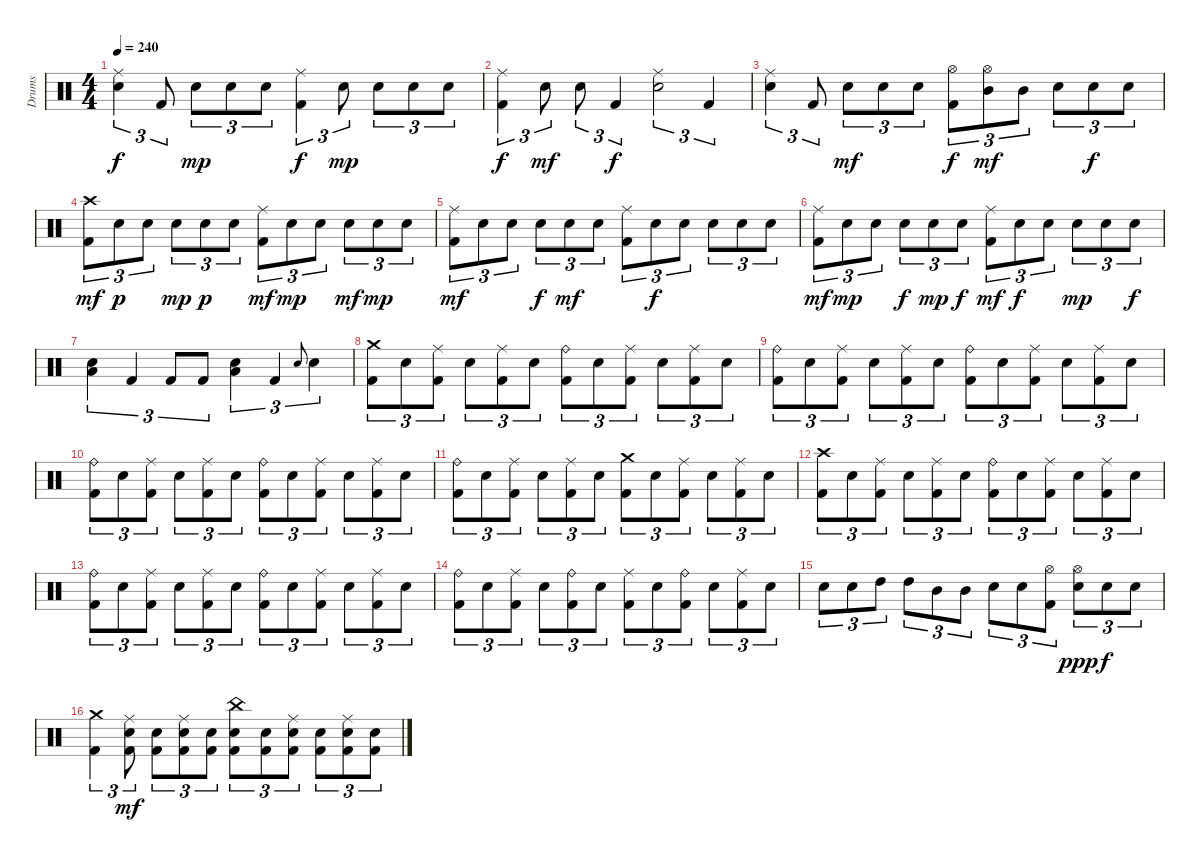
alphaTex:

\track ("Drums" "Drums") {instrument percussion}
\staff {score}
\articulation defaults
\ts (4 4)
\tempo 240
\clef neutral
\ks c
("Ride (middle)" "Electric Snare (hit)").4{tu (3 2) dy f} "Kick (hit) 2".8{tu (3 2)} "Electric Snare (hit)".8{tu (3 2) dy mp} "Electric Snare (hit)".8{tu (3 2)} "Electric Snare (hit)".8{tu (3 2)} ("Ride (middle)" "Kick (hit) 2").4{tu (3 2) dy f} "Electric Snare (hit)".8{tu (3 2) dy mp} "Electric Snare (hit)".8{tu (3 2)} "Electric Snare (hit)".8{tu (3 2)} "Electric Snare (hit)".8{tu (3 2)} |
("Ride (middle)" "Kick (hit) 2").4{tu (3 2) dy f} "Electric Snare (hit)".8{tu (3 2) dy mf} "Electric Snare (hit)".8{tu (3 2)} "Kick (hit) 2".4{tu (3 2) dy f} ("Ride (middle)" "Electric Snare (hit)").2{tu (3 2)} "Kick (hit) 2".4{tu (3 2)} |
("Ride (middle)" "Electric Snare (hit)").4{tu (3 2)} "Kick (hit) 2".8{tu (3 2)} "Electric Snare (hit)".8{tu (3 2) dy mf} "Electric Snare (hit)".8{tu (3 2)} "Electric Snare (hit)".8{tu (3 2)} ("Hi-Hat (open)" "Kick (hit) 2").8{tu (3 2) dy f} ("Hi-Hat (open)" "Mid Tom (hit)").8{tu (3 2) dy mf} "Mid Tom (hit)".8{tu (3 2)} "Electric Snare (hit)".8{tu (3 2)} "Electric Snare (hit)".8{tu (3 2) dy f} "Electric Snare (hit)".8{tu (3 2)} |
("Crash high (hit)" "Kick (hit) 2").8{tu (3 2) dy mf} "Electric Snare (hit)".8{tu (3 2) dy p} "Electric Snare (hit)".8{tu (3 2)} "Electric Snare (hit)".8{tu (3 2) dy mp} "Electric Snare (hit)".8{tu (3 2) dy p} "Electric Snare (hit)".8{tu (3 2)} ("Ride (middle)" "Kick (hit) 2").8{tu (3 2) dy mf} "Electric Snare (hit)".8{tu (3 2) dy mp} "Electric Snare (hit)".8{tu (3 2)} "Electric Snare (hit)".8{tu (3 2) dy mf} "Electric Snare (hit)".8{tu (3 2) dy mp} "Electric Snare (hit)".8{tu (3 2)} |
("Ride (middle)" "Kick (hit) 2").8{tu (3 2) dy mf} "Electric Snare (hit)".8{tu (3 2)} "Electric Snare (hit)".8{tu (3 2)} "Electric Snare (hit)".8{tu (3 2) dy f} "Electric Snare (hit)".8{tu (3 2) dy mf} "Electric Snare (hit)".8{tu (3 2)} ("Ride (middle)" "Kick (hit) 2").8{tu (3 2)} "Electric Snare (hit)".8{tu (3 2) dy f} "Electric Snare (hit)".8{tu (3 2)} "Electric Snare (hit)".8{tu (3 2)} "Electric Snare (hit)".8{tu (3 2)} "Electric Snare (hit)".8{tu (3 2)} |
("Ride (middle)" "Kick (hit) 2").8{tu (3 2) dy mf} "Electric Snare (hit)".8{tu (3 2) dy mp} "Electric Snare (hit)".8{tu (3 2)} "Electric Snare (hit)".8{tu (3 2) dy f} "Electric Snare (hit)".8{tu (3 2) dy mp} "Electric Snare (hit)".8{tu (3 2) dy f} ("Ride (middle)" "Kick (hit) 2").8{tu (3 2) dy mf} "Electric Snare (hit)".8{tu (3 2) dy f} "Electric Snare (hit)".8{tu (3 2)} "Electric Snare (hit)".8{tu (3 2) dy mp} "Electric Snare (hit)".8{tu (3 2)} "Electric Snare (hit)".8{tu (3 2) dy f} |
("Electric Snare (hit)" "Low Tom (hit)").4{tu (3 2) bu 240} "Kick (hit) 2".4{tu (3 2)} "Kick (hit) 2".8{tu (3 2)} "Kick (hit) 2".8{tu (3 2)} ("Electric Snare (hit)" "Low Tom (hit)").4{tu (3 2) bu 240} "Kick (hit) 2".4{tu (3 2)} "Electric Snare (hit)".8{gr onbeat} "Electric Snare (hit)".4{tu (3 2)} |
("Crash medium (hit)" "Kick (hit) 2").8{tu (3 2)} "Electric Snare (hit)".8{tu (3 2)} ("Ride (middle)" "Kick (hit) 2").8{tu (3 2)} "Electric Snare (hit)".8{tu (3 2)} ("Ride (middle)" "Kick (hit) 2").8{tu (3 2)} "Electric Snare (hit)".8{tu (3 2)} ("Ride (bell)" "Kick (hit) 2").8{tu (3 2)} "Electric Snare (hit)".8{tu (3 2)} ("Ride (middle)" "Kick (hit) 2").8{tu (3 2)} "Electric Snare (hit)".8{tu (3 2)} ("Ride (middle)" "Kick (hit) 2").8{tu (3 2)} "Electric Snare (hit)".8{tu (3 2)} |
("Ride (bell)" "Kick (hit) 2").8{tu (3 2)} "Electric Snare (hit)".8{tu (3 2)} ("Ride (middle)" "Kick (hit) 2").8{tu (3 2)} "Electric Snare (hit)".8{tu (3 2)} ("Ride (middle)" "Kick (hit) 2").8{tu (3 2)} "Electric Snare (hit)".8{tu (3 2)} ("Ride (bell)" "Kick (hit) 2").8{tu (3 2)} "Electric Snare (hit)".8{tu (3 2)} ("Ride (middle)" "Kick (hit) 2").8{tu (3 2)} "Electric Snare (hit)".8{tu (3 2)} ("Ride (middle)" "Kick (hit) 2").8{tu (3 2)} "Electric Snare (hit)".8{tu (3 2)} |
("Ride (bell)" "Kick (hit) 2").8{tu (3 2)} "Electric Snare (hit)".8{tu (3 2)} ("Ride (middle)" "Kick (hit) 2").8{tu (3 2)} "Electric Snare (hit)".8{tu (3 2)} ("Ride (middle)" "Kick (hit) 2").8{tu (3 2)} "Electric Snare (hit)".8{tu (3 2)} ("Ride (bell)" "Kick (hit) 2").8{tu (3 2)} "Electric Snare (hit)".8{tu (3 2)} ("Ride (middle)" "Kick (hit) 2").8{tu (3 2)} "Electric Snare (hit)".8{tu (3 2)} ("Ride (middle)" "Kick (hit) 2").8{tu (3 2)} "Electric Snare (hit)".8{tu (3 2)} |
("Ride (bell)" "Kick (hit) 2").8{tu (3 2)} "Electric Snare (hit)".8{tu (3 2)} ("Ride (middle)" "Kick (hit) 2").8{tu (3 2)} "Electric Snare (hit)".8{tu (3 2)} ("Ride (middle)" "Kick (hit) 2").8{tu (3 2)} "Electric Snare (hit)".8{tu (3 2)} ("Crash medium (hit)" "Kick (hit) 2").8{tu (3 2)} "Electric Snare (hit)".8{tu (3 2)} ("Ride (middle)" "Kick (hit) 2").8{tu (3 2)} "Electric Snare (hit)".8{tu (3 2)} ("Ride (middle)" "Kick (hit) 2").8{tu (3 2)} "Electric Snare (hit)".8{tu (3 2)} |
("Crash high (hit)" "Kick (hit) 2").8{tu (3 2)} "Electric Snare (hit)".8{tu (3 2)} ("Ride (middle)" "Kick (hit) 2").8{tu (3 2)} "Electric Snare (hit)".8{tu (3 2)} ("Ride (middle)" "Kick (hit) 2").8{tu (3 2)} "Electric Snare (hit)".8{tu (3 2)} ("Ride (bell)" "Kick (hit) 2").8{tu (3 2)} "Electric Snare (hit)".8{tu (3 2)} ("Ride (middle)" "Kick (hit) 2").8{tu (3 2)} "Electric Snare (hit)".8{tu (3 2)} ("Ride (middle)" "Kick (hit) 2").8{tu (3 2)} "Electric Snare (hit)".8{tu (3 2)} |
("Ride (bell)" "Kick (hit) 2").8{tu (3 2)} "Electric Snare (hit)".8{tu (3 2)} ("Ride (middle)" "Kick (hit) 2").8{tu (3 2)} "Electric Snare (hit)".8{tu (3 2)} ("Ride (middle)" "Kick (hit) 2").8{tu (3 2)} "Electric Snare (hit)".8{tu (3 2)} ("Ride (bell)" "Kick (hit) 2").8{tu (3 2)} "Electric Snare (hit)".8{tu (3 2)} ("Ride (middle)" "Kick (hit) 2").8{tu (3 2)} "Electric Snare (hit)".8{tu (3 2)} ("Ride (middle)" "Kick (hit) 2").8{tu (3 2)} "Electric Snare (hit)".8{tu (3 2)} |
("Ride (bell)" "Kick (hit) 2").8{tu (3 2)} "Electric Snare (hit)".8{tu (3 2)} ("Ride (middle)" "Kick (hit) 2").8{tu (3 2)} "Electric Snare (hit)".8{tu (3 2)} ("Ride (bell)" "Kick (hit) 2").8{tu (3 2)} "Electric Snare (hit)".8{tu (3 2)} ("Ride (middle)" "Kick (hit) 2").8{tu (3 2)} "Electric Snare (hit)".8{tu (3 2)} ("Ride (bell)" "Kick (hit) 2").8{tu (3 2)} "Electric Snare (hit)".8{tu (3 2)} ("Ride (middle)" "Kick (hit) 2").8{tu (3 2)} "Electric Snare (hit)".8{tu (3 2)} |
"Electric Snare (hit)".8{tu (3 2)} "Electric Snare (hit)".8{tu (3 2)} "High Tom (hit)".8{tu (3 2)} "High Tom (hit)".8{tu (3 2)} "Mid Tom (hit)".8{tu (3 2)} "Mid Tom (hit)".8{tu (3 2)} "Electric Snare (hit)".8{tu (3 2)} "Electric Snare (hit)".8{tu (3 2)} ("Hi-Hat (open)" "Kick (hit) 2").8{tu (3 2)} ("Hi-Hat (open)" "Electric Snare (hit)").8{tu (3 2) dy ppp} "Electric Snare (hit)".8{tu (3 2) dy f} "Electric Snare (hit)".8{tu (3 2)} |
("Crash medium (hit)" "Kick (hit) 2").4{tu (3 2)} ("Ride (middle)" "Electric Snare (hit)" "Kick (hit) 2").8{tu (3 2) dy mf} ("Electric Snare (hit)" "Kick (hit) 2").8{tu (3 2)} ("Ride (middle)" "Electric Snare (hit)" "Kick (hit) 2").8{tu (3 2)} ("Electric Snare (hit)" "Kick (hit) 2").8{tu (3 2)} ("China (hit)" "Electric Snare (hit)" "Kick (hit) 2").8{tu (3 2)} ("Electric Snare (hit)" "Kick (hit) 2").8{tu (3 2)} ("Ride (middle)" "Electric Snare (hit)" "Kick (hit) 2").8{tu (3 2)} ("Electric Snare (hit)" "Kick (hit) 2").8{tu (3 2)} ("Ride (middle)" "Electric Snare (hit)" "Kick (hit) 2").8{tu (3 2)} ("Electric Snare (hit)" "Kick (hit) 2").8{tu (3 2)}
